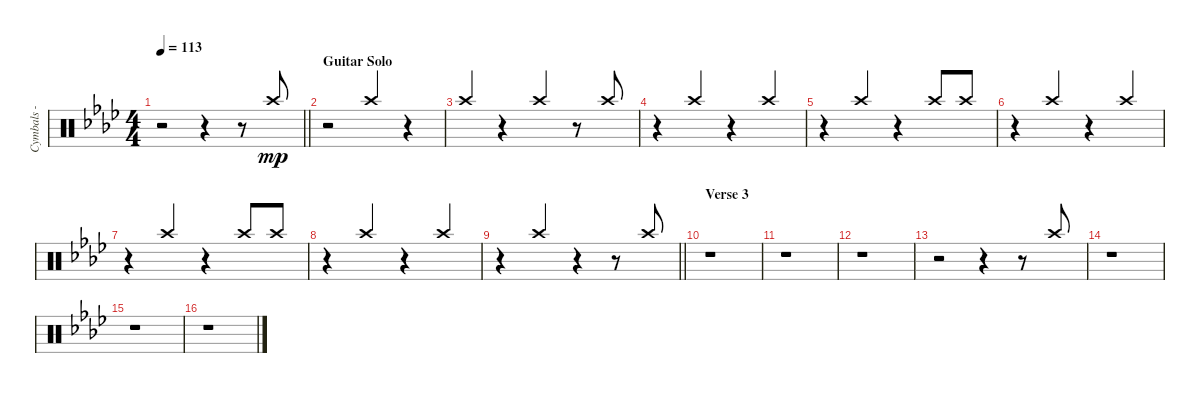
\track ("Cymbals - crash" "Cymbals - ") {instrument percussion}
\staff {score}
\articulation defaults
\ts (4 4)
\tempo 113
\clef neutral
\barLineRight lightlight
\ks fminor
r.2{dy mp} r.4 r.8 "Crash high (hit)".8{beam Up} |
\section ("" "Guitar Solo")
r.2 "Crash high (hit)".4{beam Up} r.4 |
"Crash high (hit)".4{beam Up} r.4 "Crash high (hit)".4{beam Up} r.8 "Crash high (hit)".8{beam Up} |
r.4 "Crash high (hit)".4{beam Up} r.4 "Crash high (hit)".4{beam Up} |
r.4 "Crash high (hit)".4{beam Up} r.4 "Crash high (hit)".8{beam Up} "Crash high (hit)".8{beam Up} |
r.4 "Crash high (hit)".4{beam Up} r.4 "Crash high (hit)".4{beam Up} |
r.4 "Crash high (hit)".4{beam Up} r.4 "Crash high (hit)".8{beam Up} "Crash high (hit)".8{beam Up} |
r.4 "Crash high (hit)".4{beam Up} r.4 "Crash high (hit)".4{beam Up} |
\barLineRight lightlight
r.4 "Crash high (hit)".4{beam Up} r.4 r.8 "Crash high (hit)".8{beam Up} |
\section ("" "Verse 3")
r.1 |
r.1 |
r.1 |
r.2 r.4 r.8 "Crash high (hit)".8{beam Up} |
r.1 |
r.1 |
r.1
